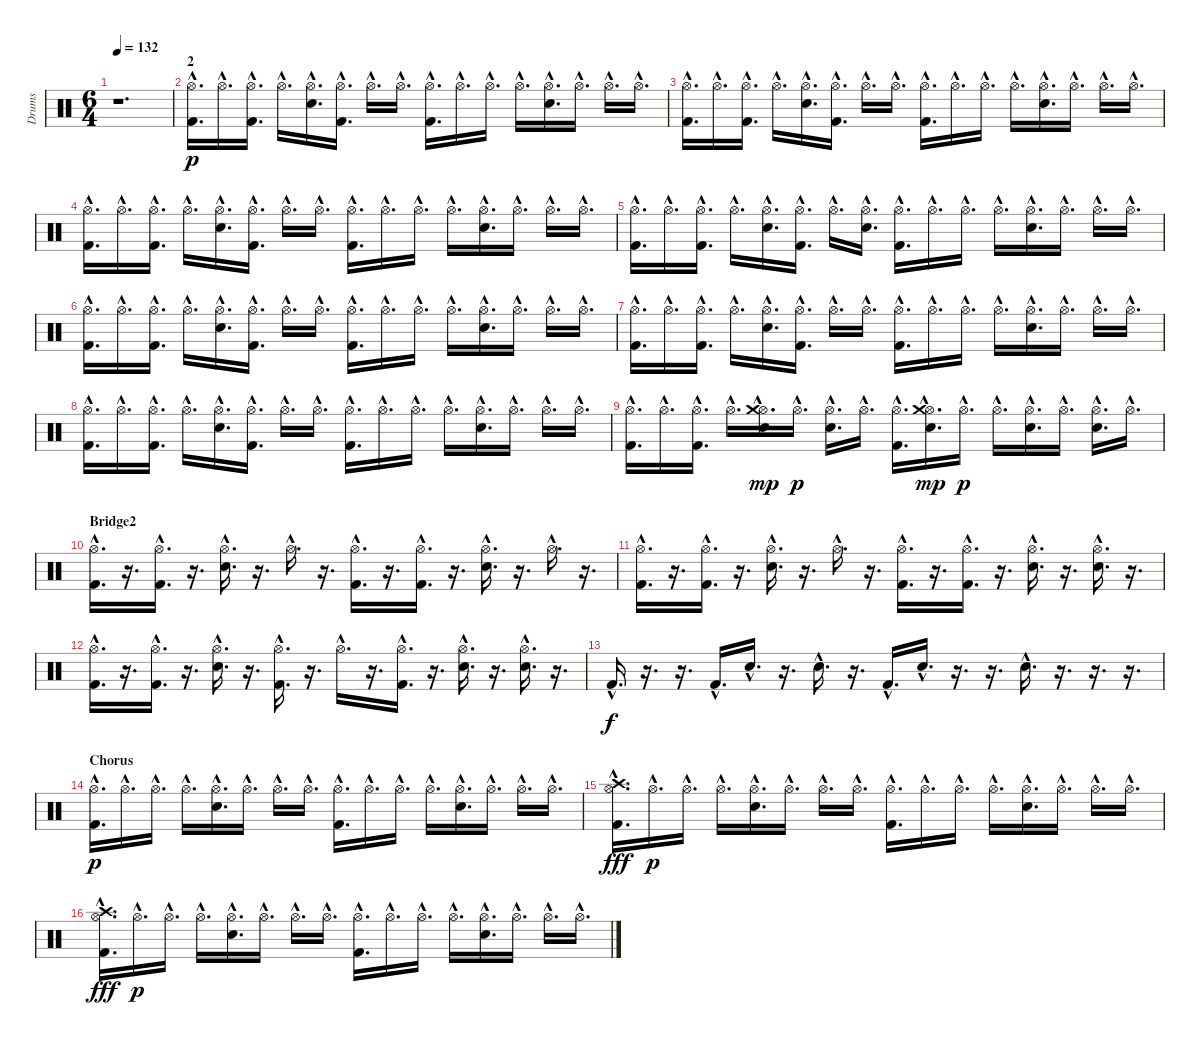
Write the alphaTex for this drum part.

\track ("Drums" "Drums") {instrument percussion}
\staff {score}
\articulation defaults
\ts (6 4)
\tempo 132
\clef neutral
\ks c
r.1{d dy p} |
\section ("" "2")
("Hi-Hat (open)"{hac} "Kick (hit) 2"{hac}).16{d} "Hi-Hat (open)"{hac}.16{d} ("Hi-Hat (open)"{hac} "Kick (hit) 2"{hac}).16{d} "Hi-Hat (open)"{hac}.16{d} ("Hi-Hat (open)"{hac} "Electric Snare (hit)"{hac}).16{d} ("Hi-Hat (open)"{hac} "Kick (hit) 2"{hac}).16{d} "Hi-Hat (open)"{hac}.16{d} "Hi-Hat (open)"{hac}.16{d} ("Hi-Hat (open)"{hac} "Kick (hit) 2"{hac}).16{d} "Hi-Hat (open)"{hac}.16{d} "Hi-Hat (open)"{hac}.16{d} "Hi-Hat (open)"{hac}.16{d} ("Hi-Hat (open)"{hac} "Electric Snare (hit)"{hac}).16{d} "Hi-Hat (open)"{hac}.16{d} "Hi-Hat (open)"{hac}.16{d} "Hi-Hat (open)"{hac}.16{d} |
("Hi-Hat (open)"{hac} "Kick (hit) 2"{hac}).16{d} "Hi-Hat (open)"{hac}.16{d} ("Hi-Hat (open)"{hac} "Kick (hit) 2"{hac}).16{d} "Hi-Hat (open)"{hac}.16{d} ("Hi-Hat (open)"{hac} "Electric Snare (hit)"{hac}).16{d} ("Hi-Hat (open)"{hac} "Kick (hit) 2"{hac}).16{d} "Hi-Hat (open)"{hac}.16{d} "Hi-Hat (open)"{hac}.16{d} ("Hi-Hat (open)"{hac} "Kick (hit) 2"{hac}).16{d} "Hi-Hat (open)"{hac}.16{d} "Hi-Hat (open)"{hac}.16{d} "Hi-Hat (open)"{hac}.16{d} ("Hi-Hat (open)"{hac} "Electric Snare (hit)"{hac}).16{d} "Hi-Hat (open)"{hac}.16{d} "Hi-Hat (open)"{hac}.16{d} "Hi-Hat (open)"{hac}.16{d} |
("Hi-Hat (open)"{hac} "Kick (hit) 2"{hac}).16{d} "Hi-Hat (open)"{hac}.16{d} ("Hi-Hat (open)"{hac} "Kick (hit) 2"{hac}).16{d} "Hi-Hat (open)"{hac}.16{d} ("Hi-Hat (open)"{hac} "Electric Snare (hit)"{hac}).16{d} ("Hi-Hat (open)"{hac} "Kick (hit) 2"{hac}).16{d} "Hi-Hat (open)"{hac}.16{d} "Hi-Hat (open)"{hac}.16{d} ("Hi-Hat (open)"{hac} "Kick (hit) 2"{hac}).16{d} "Hi-Hat (open)"{hac}.16{d} "Hi-Hat (open)"{hac}.16{d} "Hi-Hat (open)"{hac}.16{d} ("Hi-Hat (open)"{hac} "Electric Snare (hit)"{hac}).16{d} "Hi-Hat (open)"{hac}.16{d} "Hi-Hat (open)"{hac}.16{d} "Hi-Hat (open)"{hac}.16{d} |
("Hi-Hat (open)"{hac} "Kick (hit) 2"{hac}).16{d} "Hi-Hat (open)"{hac}.16{d} ("Hi-Hat (open)"{hac} "Kick (hit) 2"{hac}).16{d} "Hi-Hat (open)"{hac}.16{d} ("Hi-Hat (open)"{hac} "Electric Snare (hit)"{hac}).16{d} ("Hi-Hat (open)"{hac} "Kick (hit) 2"{hac}).16{d} "Hi-Hat (open)"{hac}.16{d} ("Hi-Hat (open)"{hac} "Electric Snare (hit)"{hac}).16{d} ("Hi-Hat (open)"{hac} "Kick (hit) 2"{hac}).16{d} "Hi-Hat (open)"{hac}.16{d} "Hi-Hat (open)"{hac}.16{d} "Hi-Hat (open)"{hac}.16{d} ("Hi-Hat (open)"{hac} "Electric Snare (hit)"{hac}).16{d} "Hi-Hat (open)"{hac}.16{d} "Hi-Hat (open)"{hac}.16{d} "Hi-Hat (open)"{hac}.16{d} |
("Hi-Hat (open)"{hac} "Kick (hit) 2"{hac}).16{d} "Hi-Hat (open)"{hac}.16{d} ("Hi-Hat (open)"{hac} "Kick (hit) 2"{hac}).16{d} "Hi-Hat (open)"{hac}.16{d} ("Hi-Hat (open)"{hac} "Electric Snare (hit)"{hac}).16{d} ("Hi-Hat (open)"{hac} "Kick (hit) 2"{hac}).16{d} "Hi-Hat (open)"{hac}.16{d} "Hi-Hat (open)"{hac}.16{d} ("Hi-Hat (open)"{hac} "Kick (hit) 2"{hac}).16{d} "Hi-Hat (open)"{hac}.16{d} "Hi-Hat (open)"{hac}.16{d} "Hi-Hat (open)"{hac}.16{d} ("Hi-Hat (open)"{hac} "Electric Snare (hit)"{hac}).16{d} "Hi-Hat (open)"{hac}.16{d} "Hi-Hat (open)"{hac}.16{d} "Hi-Hat (open)"{hac}.16{d} |
("Hi-Hat (open)"{hac} "Kick (hit) 2"{hac}).16{d} "Hi-Hat (open)"{hac}.16{d} ("Hi-Hat (open)"{hac} "Kick (hit) 2"{hac}).16{d} "Hi-Hat (open)"{hac}.16{d} ("Hi-Hat (open)"{hac} "Electric Snare (hit)"{hac}).16{d} ("Hi-Hat (open)"{hac} "Kick (hit) 2"{hac}).16{d} "Hi-Hat (open)"{hac}.16{d} "Hi-Hat (open)"{hac}.16{d} ("Hi-Hat (open)"{hac} "Kick (hit) 2"{hac}).16{d} "Hi-Hat (open)"{hac}.16{d} "Hi-Hat (open)"{hac}.16{d} "Hi-Hat (open)"{hac}.16{d} ("Hi-Hat (open)"{hac} "Electric Snare (hit)"{hac}).16{d} "Hi-Hat (open)"{hac}.16{d} "Hi-Hat (open)"{hac}.16{d} "Hi-Hat (open)"{hac}.16{d} |
("Hi-Hat (open)"{hac} "Kick (hit) 2"{hac}).16{d} "Hi-Hat (open)"{hac}.16{d} ("Hi-Hat (open)"{hac} "Kick (hit) 2"{hac}).16{d} "Hi-Hat (open)"{hac}.16{d} ("Hi-Hat (open)"{hac} "Electric Snare (hit)"{hac}).16{d} ("Hi-Hat (open)"{hac} "Kick (hit) 2"{hac}).16{d} "Hi-Hat (open)"{hac}.16{d} "Hi-Hat (open)"{hac}.16{d} ("Hi-Hat (open)"{hac} "Kick (hit) 2"{hac}).16{d} "Hi-Hat (open)"{hac}.16{d} "Hi-Hat (open)"{hac}.16{d} "Hi-Hat (open)"{hac}.16{d} ("Hi-Hat (open)"{hac} "Electric Snare (hit)"{hac}).16{d} "Hi-Hat (open)"{hac}.16{d} "Hi-Hat (open)"{hac}.16{d} "Hi-Hat (open)"{hac}.16{d} |
("Hi-Hat (open)"{hac} "Kick (hit) 2"{hac}).16{d} "Hi-Hat (open)"{hac}.16{d} ("Hi-Hat (open)"{hac} "Kick (hit) 2"{hac}).16{d} "Hi-Hat (open)"{hac}.16{d} ("Hi-Hat (open)"{hac} "Electric Snare (hit)"{hac} "Crash medium (hit)"{hac}).16{d dy mp} "Hi-Hat (open)"{hac}.16{d dy p} ("Hi-Hat (open)"{hac} "Electric Snare (hit)"{hac}).16{d} "Hi-Hat (open)"{hac}.16{d} ("Hi-Hat (open)"{hac} "Kick (hit) 2"{hac}).16{d} ("Hi-Hat (open)"{hac} "Electric Snare (hit)"{hac} "Crash medium (hit)"{hac}).16{d dy mp} "Hi-Hat (open)"{hac}.16{d dy p} "Hi-Hat (open)"{hac}.16{d} ("Hi-Hat (open)"{hac} "Electric Snare (hit)"{hac}).16{d} "Hi-Hat (open)"{hac}.16{d} ("Hi-Hat (open)"{hac} "Electric Snare (hit)"{hac}).16{d} "Hi-Hat (open)"{hac}.16{d} |
\section ("" "Bridge2")
("Hi-Hat (open)"{hac} "Kick (hit) 2"{hac}).16{d} r.16{d} ("Hi-Hat (open)"{hac} "Kick (hit) 2"{hac}).16{d} r.16{d} ("Hi-Hat (open)"{hac} "Electric Snare (hit)"{hac}).16{d} r.16{d} "Hi-Hat (open)"{hac}.16{d} r.16{d} ("Hi-Hat (open)"{hac} "Kick (hit) 2"{hac}).16{d} r.16{d} ("Hi-Hat (open)"{hac} "Kick (hit) 2"{hac}).16{d} r.16{d} ("Hi-Hat (open)"{hac} "Electric Snare (hit)"{hac}).16{d} r.16{d} "Hi-Hat (open)"{hac}.16{d} r.16{d} |
("Hi-Hat (open)"{hac} "Kick (hit) 2"{hac}).16{d} r.16{d} ("Hi-Hat (open)"{hac} "Kick (hit) 2"{hac}).16{d} r.16{d} ("Hi-Hat (open)"{hac} "Electric Snare (hit)"{hac}).16{d} r.16{d} "Hi-Hat (open)"{hac}.16{d} r.16{d} ("Hi-Hat (open)"{hac} "Kick (hit) 2"{hac}).16{d} r.16{d} ("Hi-Hat (open)"{hac} "Kick (hit) 2"{hac}).16{d} r.16{d} ("Hi-Hat (open)"{hac} "Electric Snare (hit)"{hac}).16{d} r.16{d} ("Hi-Hat (open)"{hac} "Electric Snare (hit)"{hac}).16{d} r.16{d} |
("Hi-Hat (open)"{hac} "Kick (hit) 2"{hac}).16{d} r.16{d} ("Hi-Hat (open)"{hac} "Kick (hit) 2"{hac}).16{d} r.16{d} ("Hi-Hat (open)"{hac} "Electric Snare (hit)"{hac}).16{d} r.16{d} ("Hi-Hat (open)"{hac} "Kick (hit) 2"{hac}).16{d} r.16{d} "Hi-Hat (open)"{hac}.16{d} r.16{d} ("Hi-Hat (open)"{hac} "Kick (hit) 2"{hac}).16{d} r.16{d} ("Hi-Hat (open)"{hac} "Electric Snare (hit)"{hac}).16{d} r.16{d} ("Hi-Hat (open)"{hac} "Electric Snare (hit)"{hac}).16{d} r.16{d} |
"Kick (hit) 2"{hac}.16{d dy f} r.16{d} r.16{d} "Kick (hit) 2"{hac}.16{d} "Electric Snare (hit)"{hac}.16{d} r.16{d} "Electric Snare (hit)"{hac}.16{d} r.16{d} "Kick (hit) 2"{hac}.16{d} "Electric Snare (hit)"{hac}.16{d} r.16{d} r.16{d} "Electric Snare (hit)"{hac}.16{d} r.16{d} r.16{d} r.16{d} |
\section ("" "Chorus")
("Kick (hit) 2"{hac} "Hi-Hat (open)"{hac}).16{d dy p} "Hi-Hat (open)"{hac}.16{d} "Hi-Hat (open)"{hac}.16{d} "Hi-Hat (open)"{hac}.16{d} ("Electric Snare (hit)"{hac} "Hi-Hat (open)"{hac}).16{d} "Hi-Hat (open)"{hac}.16{d} "Hi-Hat (open)"{hac}.16{d} "Hi-Hat (open)"{hac}.16{d} ("Kick (hit) 2"{hac} "Hi-Hat (open)"{hac}).16{d} "Hi-Hat (open)"{hac}.16{d} "Hi-Hat (open)"{hac}.16{d} "Hi-Hat (open)"{hac}.16{d} ("Electric Snare (hit)"{hac} "Hi-Hat (open)"{hac}).16{d} "Hi-Hat (open)"{hac}.16{d} "Hi-Hat (open)"{hac}.16{d} "Hi-Hat (open)"{hac}.16{d} |
("Crash high (hit)"{hac} "Hi-Hat (open)"{hac} "Kick (hit) 2"{hac}).16{d dy fff} "Hi-Hat (open)"{hac}.16{d dy p} "Hi-Hat (open)"{hac}.16{d} "Hi-Hat (open)"{hac}.16{d} ("Electric Snare (hit)"{hac} "Hi-Hat (open)"{hac}).16{d} "Hi-Hat (open)"{hac}.16{d} "Hi-Hat (open)"{hac}.16{d} "Hi-Hat (open)"{hac}.16{d} ("Kick (hit) 2"{hac} "Hi-Hat (open)"{hac}).16{d} "Hi-Hat (open)"{hac}.16{d} "Hi-Hat (open)"{hac}.16{d} "Hi-Hat (open)"{hac}.16{d} ("Electric Snare (hit)"{hac} "Hi-Hat (open)"{hac}).16{d} "Hi-Hat (open)"{hac}.16{d} "Hi-Hat (open)"{hac}.16{d} "Hi-Hat (open)"{hac}.16{d} |
("Crash high (hit)"{hac} "Hi-Hat (open)"{hac} "Kick (hit) 2"{hac}).16{d dy fff} "Hi-Hat (open)"{hac}.16{d dy p} "Hi-Hat (open)"{hac}.16{d} "Hi-Hat (open)"{hac}.16{d} ("Electric Snare (hit)"{hac} "Hi-Hat (open)"{hac}).16{d} "Hi-Hat (open)"{hac}.16{d} "Hi-Hat (open)"{hac}.16{d} "Hi-Hat (open)"{hac}.16{d} ("Kick (hit) 2"{hac} "Hi-Hat (open)"{hac}).16{d} "Hi-Hat (open)"{hac}.16{d} "Hi-Hat (open)"{hac}.16{d} "Hi-Hat (open)"{hac}.16{d} ("Electric Snare (hit)"{hac} "Hi-Hat (open)"{hac}).16{d} "Hi-Hat (open)"{hac}.16{d} "Hi-Hat (open)"{hac}.16{d} "Hi-Hat (open)"{hac}.16{d}
